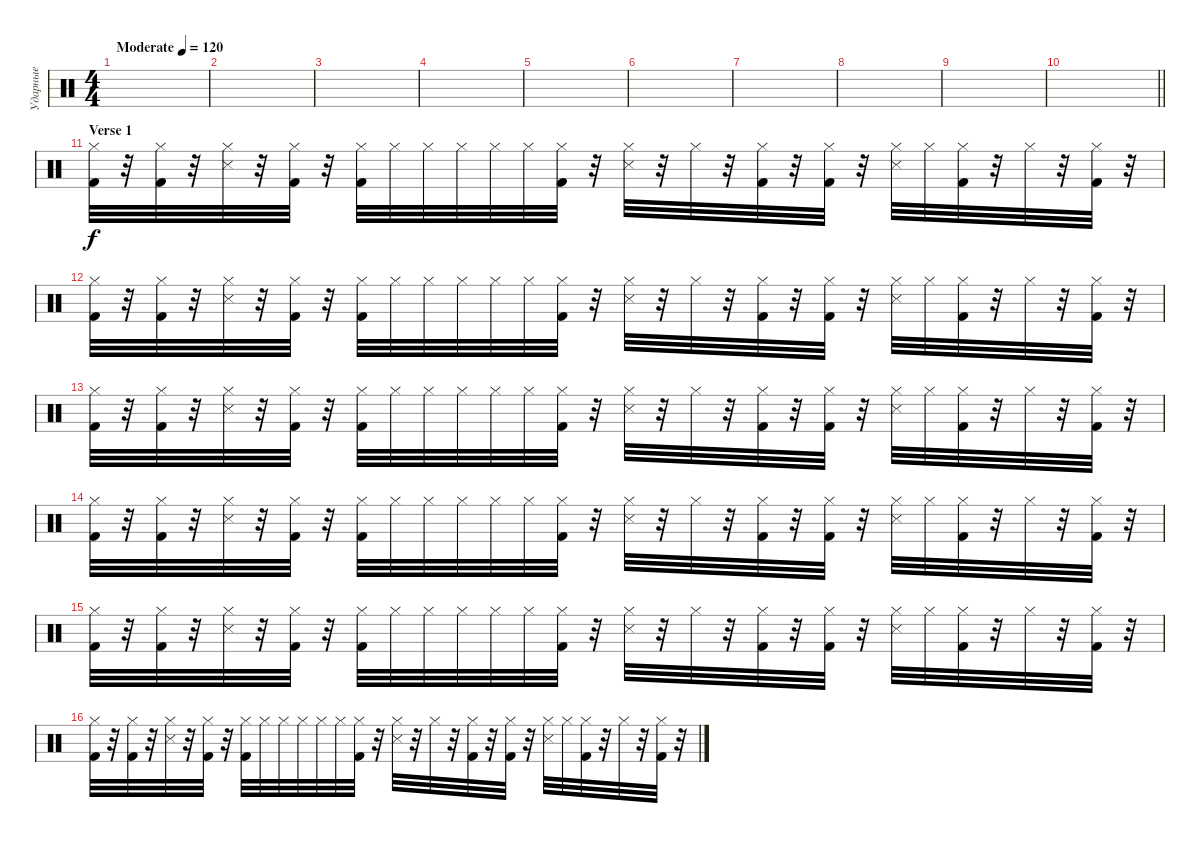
\track ("Ударные" "Ударные") {instrument percussion}
\staff {score}
\articulation defaults
\ts (4 4)
\tempo (120 "Moderate")
\clef neutral
\ks c
|
|
|
|
|
|
|
|
|
\barLineRight lightlight
|
\section ("" "Verse 1")
("Hi-Hat (closed)" "Kick (hit) 2").32 r.32 ("Hi-Hat (closed)" "Kick (hit) 2").32 r.32 ("Hi-Hat (closed)" "Metronome (hit)").32 r.32 ("Hi-Hat (closed)" "Kick (hit) 2").32 r.32 ("Hi-Hat (closed)" "Kick (hit) 2").32 "Hi-Hat (closed)".32 "Hi-Hat (closed)".32 "Hi-Hat (closed)".32 "Hi-Hat (closed)".32 "Hi-Hat (closed)".32 ("Hi-Hat (closed)" "Kick (hit) 2").32 r.32 ("Hi-Hat (closed)" "Metronome (hit)").32 r.32 "Hi-Hat (closed)".32 r.32 ("Hi-Hat (closed)" "Kick (hit) 2").32 r.32 ("Hi-Hat (closed)" "Kick (hit) 2").32 r.32 ("Hi-Hat (closed)" "Metronome (hit)").32 "Hi-Hat (closed)".32 ("Hi-Hat (closed)" "Kick (hit) 2").32 r.32 "Hi-Hat (closed)".32 r.32 ("Hi-Hat (closed)" "Kick (hit) 2").32 r.32 |
("Hi-Hat (closed)" "Kick (hit) 2").32 r.32 ("Hi-Hat (closed)" "Kick (hit) 2").32 r.32 ("Hi-Hat (closed)" "Metronome (hit)").32 r.32 ("Hi-Hat (closed)" "Kick (hit) 2").32 r.32 ("Hi-Hat (closed)" "Kick (hit) 2").32 "Hi-Hat (closed)".32 "Hi-Hat (closed)".32 "Hi-Hat (closed)".32 "Hi-Hat (closed)".32 "Hi-Hat (closed)".32 ("Hi-Hat (closed)" "Kick (hit) 2").32 r.32 ("Hi-Hat (closed)" "Metronome (hit)").32 r.32 "Hi-Hat (closed)".32 r.32 ("Hi-Hat (closed)" "Kick (hit) 2").32 r.32 ("Hi-Hat (closed)" "Kick (hit) 2").32 r.32 ("Hi-Hat (closed)" "Metronome (hit)").32 "Hi-Hat (closed)".32 ("Hi-Hat (closed)" "Kick (hit) 2").32 r.32 "Hi-Hat (closed)".32 r.32 ("Hi-Hat (closed)" "Kick (hit) 2").32 r.32 |
("Hi-Hat (closed)" "Kick (hit) 2").32 r.32 ("Hi-Hat (closed)" "Kick (hit) 2").32 r.32 ("Hi-Hat (closed)" "Metronome (hit)").32 r.32 ("Hi-Hat (closed)" "Kick (hit) 2").32 r.32 ("Hi-Hat (closed)" "Kick (hit) 2").32 "Hi-Hat (closed)".32 "Hi-Hat (closed)".32 "Hi-Hat (closed)".32 "Hi-Hat (closed)".32 "Hi-Hat (closed)".32 ("Hi-Hat (closed)" "Kick (hit) 2").32 r.32 ("Hi-Hat (closed)" "Metronome (hit)").32 r.32 "Hi-Hat (closed)".32 r.32 ("Hi-Hat (closed)" "Kick (hit) 2").32 r.32 ("Hi-Hat (closed)" "Kick (hit) 2").32 r.32 ("Hi-Hat (closed)" "Metronome (hit)").32 "Hi-Hat (closed)".32 ("Hi-Hat (closed)" "Kick (hit) 2").32 r.32 "Hi-Hat (closed)".32 r.32 ("Hi-Hat (closed)" "Kick (hit) 2").32 r.32 |
("Hi-Hat (closed)" "Kick (hit) 2").32 r.32 ("Hi-Hat (closed)" "Kick (hit) 2").32 r.32 ("Hi-Hat (closed)" "Metronome (hit)").32 r.32 ("Hi-Hat (closed)" "Kick (hit) 2").32 r.32 ("Hi-Hat (closed)" "Kick (hit) 2").32 "Hi-Hat (closed)".32 "Hi-Hat (closed)".32 "Hi-Hat (closed)".32 "Hi-Hat (closed)".32 "Hi-Hat (closed)".32 ("Hi-Hat (closed)" "Kick (hit) 2").32 r.32 ("Hi-Hat (closed)" "Metronome (hit)").32 r.32 "Hi-Hat (closed)".32 r.32 ("Hi-Hat (closed)" "Kick (hit) 2").32 r.32 ("Hi-Hat (closed)" "Kick (hit) 2").32 r.32 ("Hi-Hat (closed)" "Metronome (hit)").32 "Hi-Hat (closed)".32 ("Hi-Hat (closed)" "Kick (hit) 2").32 r.32 "Hi-Hat (closed)".32 r.32 ("Hi-Hat (closed)" "Kick (hit) 2").32 r.32 |
("Hi-Hat (closed)" "Kick (hit) 2").32 r.32 ("Hi-Hat (closed)" "Kick (hit) 2").32 r.32 ("Hi-Hat (closed)" "Metronome (hit)").32 r.32 ("Hi-Hat (closed)" "Kick (hit) 2").32 r.32 ("Hi-Hat (closed)" "Kick (hit) 2").32 "Hi-Hat (closed)".32 "Hi-Hat (closed)".32 "Hi-Hat (closed)".32 "Hi-Hat (closed)".32 "Hi-Hat (closed)".32 ("Hi-Hat (closed)" "Kick (hit) 2").32 r.32 ("Hi-Hat (closed)" "Metronome (hit)").32 r.32 "Hi-Hat (closed)".32 r.32 ("Hi-Hat (closed)" "Kick (hit) 2").32 r.32 ("Hi-Hat (closed)" "Kick (hit) 2").32 r.32 ("Hi-Hat (closed)" "Metronome (hit)").32 "Hi-Hat (closed)".32 ("Hi-Hat (closed)" "Kick (hit) 2").32 r.32 "Hi-Hat (closed)".32 r.32 ("Hi-Hat (closed)" "Kick (hit) 2").32 r.32 |
("Hi-Hat (closed)" "Kick (hit) 2").32 r.32 ("Hi-Hat (closed)" "Kick (hit) 2").32 r.32 ("Hi-Hat (closed)" "Metronome (hit)").32 r.32 ("Hi-Hat (closed)" "Kick (hit) 2").32 r.32 ("Hi-Hat (closed)" "Kick (hit) 2").32 "Hi-Hat (closed)".32 "Hi-Hat (closed)".32 "Hi-Hat (closed)".32 "Hi-Hat (closed)".32 "Hi-Hat (closed)".32 ("Hi-Hat (closed)" "Kick (hit) 2").32 r.32 ("Hi-Hat (closed)" "Metronome (hit)").32 r.32 "Hi-Hat (closed)".32 r.32 ("Hi-Hat (closed)" "Kick (hit) 2").32 r.32 ("Hi-Hat (closed)" "Kick (hit) 2").32 r.32 ("Hi-Hat (closed)" "Metronome (hit)").32 "Hi-Hat (closed)".32 ("Hi-Hat (closed)" "Kick (hit) 2").32 r.32 "Hi-Hat (closed)".32 r.32 ("Hi-Hat (closed)" "Kick (hit) 2").32 r.32
